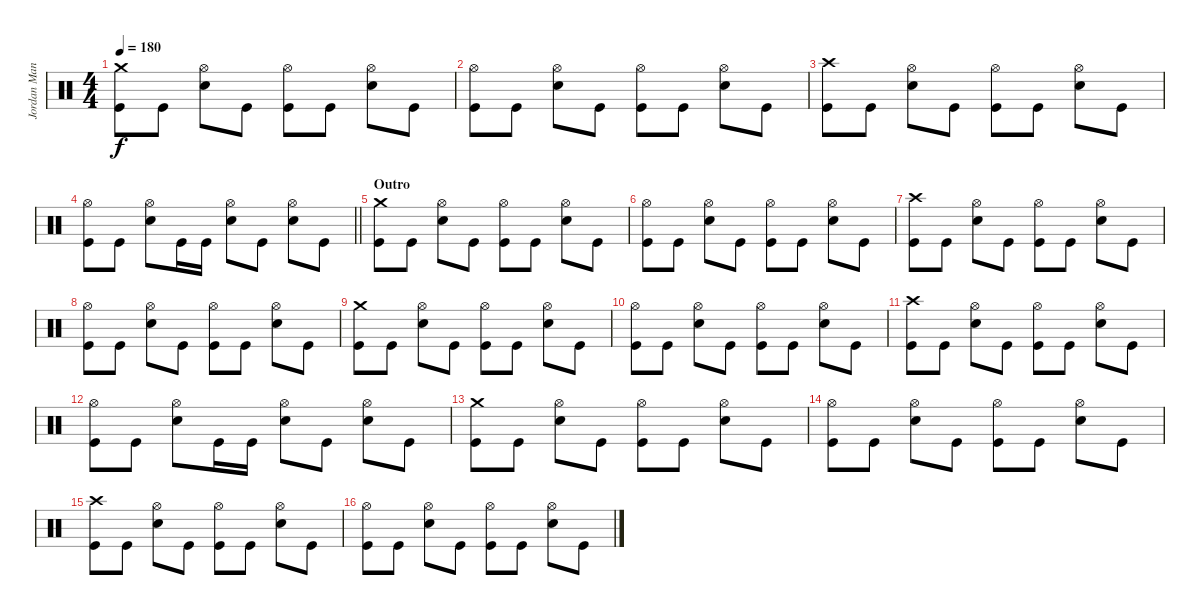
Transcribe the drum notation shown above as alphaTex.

\track ("Jordan Mancino" "Jordan Man") {instrument percussion}
\staff {score}
\articulation defaults
\ts (4 4)
\tempo 180
\clef neutral
\ks c
("Crash medium (hit)" "Kick (hit)").8{dy f} "Kick (hit)".8 ("Hi-Hat (open)" "Snare (hit) 2").8 "Kick (hit)".8 ("Hi-Hat (open)" "Kick (hit)").8 "Kick (hit)".8 ("Hi-Hat (open)" "Snare (hit) 2").8 "Kick (hit)".8 |
("Hi-Hat (open)" "Kick (hit)").8 "Kick (hit)".8 ("Hi-Hat (open)" "Snare (hit) 2").8 "Kick (hit)".8 ("Hi-Hat (open)" "Kick (hit)").8 "Kick (hit)".8 ("Hi-Hat (open)" "Snare (hit) 2").8 "Kick (hit)".8 |
("Crash high (hit)" "Kick (hit)").8 "Kick (hit)".8 ("Hi-Hat (open)" "Snare (hit) 2").8 "Kick (hit)".8 ("Hi-Hat (open)" "Kick (hit)").8 "Kick (hit)".8 ("Hi-Hat (open)" "Snare (hit) 2").8 "Kick (hit)".8 |
\barLineRight lightlight
("Hi-Hat (open)" "Kick (hit)").8 "Kick (hit)".8 ("Hi-Hat (open)" "Snare (hit) 2").8 "Kick (hit)".16 "Kick (hit)".16 ("Hi-Hat (open)" "Snare (hit) 2").8 "Kick (hit)".8 ("Hi-Hat (open)" "Snare (hit) 2").8 "Kick (hit)".8 |
\section ("" "Outro")
("Crash medium (hit)" "Kick (hit)").8 "Kick (hit)".8 ("Hi-Hat (open)" "Snare (hit) 2").8 "Kick (hit)".8 ("Hi-Hat (open)" "Kick (hit)").8 "Kick (hit)".8 ("Hi-Hat (open)" "Snare (hit) 2").8 "Kick (hit)".8 |
("Hi-Hat (open)" "Kick (hit)").8 "Kick (hit)".8 ("Hi-Hat (open)" "Snare (hit) 2").8 "Kick (hit)".8 ("Hi-Hat (open)" "Kick (hit)").8 "Kick (hit)".8 ("Hi-Hat (open)" "Snare (hit) 2").8 "Kick (hit)".8 |
("Crash high (hit)" "Kick (hit)").8 "Kick (hit)".8 ("Hi-Hat (open)" "Snare (hit) 2").8 "Kick (hit)".8 ("Hi-Hat (open)" "Kick (hit)").8 "Kick (hit)".8 ("Hi-Hat (open)" "Snare (hit) 2").8 "Kick (hit)".8 |
("Hi-Hat (open)" "Kick (hit)").8 "Kick (hit)".8 ("Hi-Hat (open)" "Snare (hit) 2").8 "Kick (hit)".8 ("Hi-Hat (open)" "Kick (hit)").8 "Kick (hit)".8 ("Hi-Hat (open)" "Snare (hit) 2").8 "Kick (hit)".8 |
("Crash medium (hit)" "Kick (hit)").8 "Kick (hit)".8 ("Hi-Hat (open)" "Snare (hit) 2").8 "Kick (hit)".8 ("Hi-Hat (open)" "Kick (hit)").8 "Kick (hit)".8 ("Hi-Hat (open)" "Snare (hit) 2").8 "Kick (hit)".8 |
("Hi-Hat (open)" "Kick (hit)").8 "Kick (hit)".8 ("Hi-Hat (open)" "Snare (hit) 2").8 "Kick (hit)".8 ("Hi-Hat (open)" "Kick (hit)").8 "Kick (hit)".8 ("Hi-Hat (open)" "Snare (hit) 2").8 "Kick (hit)".8 |
("Crash high (hit)" "Kick (hit)").8 "Kick (hit)".8 ("Hi-Hat (open)" "Snare (hit) 2").8 "Kick (hit)".8 ("Hi-Hat (open)" "Kick (hit)").8 "Kick (hit)".8 ("Hi-Hat (open)" "Snare (hit) 2").8 "Kick (hit)".8 |
("Hi-Hat (open)" "Kick (hit)").8 "Kick (hit)".8 ("Hi-Hat (open)" "Snare (hit) 2").8 "Kick (hit)".16 "Kick (hit)".16 ("Hi-Hat (open)" "Snare (hit) 2").8 "Kick (hit)".8 ("Hi-Hat (open)" "Snare (hit) 2").8 "Kick (hit)".8 |
("Crash medium (hit)" "Kick (hit)").8 "Kick (hit)".8 ("Hi-Hat (open)" "Snare (hit) 2").8 "Kick (hit)".8 ("Hi-Hat (open)" "Kick (hit)").8 "Kick (hit)".8 ("Hi-Hat (open)" "Snare (hit) 2").8 "Kick (hit)".8 |
("Hi-Hat (open)" "Kick (hit)").8 "Kick (hit)".8 ("Hi-Hat (open)" "Snare (hit) 2").8 "Kick (hit)".8 ("Hi-Hat (open)" "Kick (hit)").8 "Kick (hit)".8 ("Hi-Hat (open)" "Snare (hit) 2").8 "Kick (hit)".8 |
("Crash high (hit)" "Kick (hit)").8 "Kick (hit)".8 ("Hi-Hat (open)" "Snare (hit) 2").8 "Kick (hit)".8 ("Hi-Hat (open)" "Kick (hit)").8 "Kick (hit)".8 ("Hi-Hat (open)" "Snare (hit) 2").8 "Kick (hit)".8 |
("Hi-Hat (open)" "Kick (hit)").8 "Kick (hit)".8 ("Hi-Hat (open)" "Snare (hit) 2").8 "Kick (hit)".8 ("Hi-Hat (open)" "Kick (hit)").8 "Kick (hit)".8 ("Hi-Hat (open)" "Snare (hit) 2").8 "Kick (hit)".8
